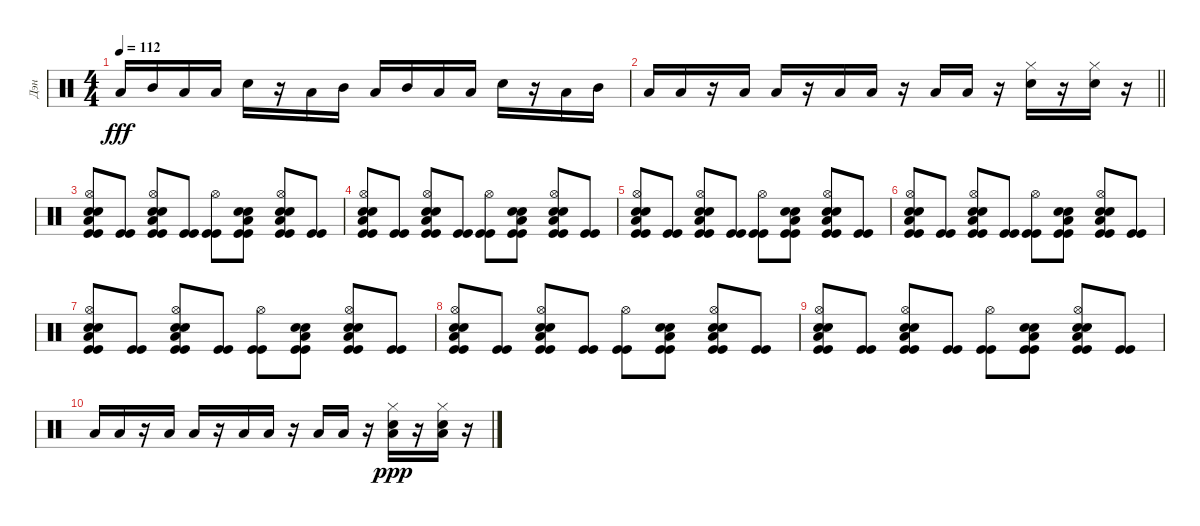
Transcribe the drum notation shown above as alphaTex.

\track ("Дэн" "Дэн") {instrument percussion}
\staff {score}
\articulation defaults
\ts (4 4)
\tempo 112
\clef neutral
\ks c "Low Tom (hit)".16{dy fff} "Mid Tom (hit)".16 "Low Tom (hit)".16 "Low Tom (hit)".16 "Electric Snare (hit)".16
r.16 "Low Tom (hit)".16 "Mid Tom (hit)".16 "Low Tom (hit)".16 "Mid Tom (hit)".16 "Low Tom (hit)".16 "Low Tom (hit)".16 "Electric Snare (hit)".16 r.16 "Low Tom (hit)".16 "Mid Tom (hit)".16 |
\barLineRight lightlight "Low Tom (hit)".16 "Low Tom (hit)".16
r.16 "Low Tom (hit)".16 "Low Tom (hit)".16 r.16 "Low Tom (hit)".16 "Low Tom (hit)".16 r.16 "Low Tom (hit)".16 "Low Tom (hit)".16 r.16 ("Hi-Hat (closed)" "Electric Snare (hit)").16 r.16 ("Hi-Hat (closed)" "Electric Snare (hit)").16 r.16 |
("Hi-Hat (open)" "Kick (hit)" "Kick (hit)" "Electric Snare (hit)" "Electric Snare (hit)" "Low Tom (hit)").8 ("Kick (hit)" "Kick (hit)").8 ("Hi-Hat (open)" "Kick (hit)" "Kick (hit)" "Electric Snare (hit)" "Electric Snare (hit)" "Low Tom (hit)").8 ("Kick (hit)" "Kick (hit)").8 ("Hi-Hat (open)" "Kick (hit)" "Kick (hit)").8 ("Kick (hit)" "Kick (hit)" "Electric Snare (hit)" "Electric Snare (hit)" "Low Tom (hit)").8 ("Hi-Hat (open)" "Kick (hit)" "Kick (hit)" "Electric Snare (hit)" "Electric Snare (hit)" "Low Tom (hit)").8 ("Kick (hit)" "Kick (hit)").8 |
("Hi-Hat (open)" "Kick (hit)" "Kick (hit)" "Electric Snare (hit)" "Electric Snare (hit)" "Low Tom (hit)").8 ("Kick (hit)" "Kick (hit)").8 ("Hi-Hat (open)" "Kick (hit)" "Kick (hit)" "Electric Snare (hit)" "Electric Snare (hit)" "Low Tom (hit)").8 ("Kick (hit)" "Kick (hit)").8 ("Hi-Hat (open)" "Kick (hit)" "Kick (hit)").8 ("Kick (hit)" "Kick (hit)" "Electric Snare (hit)" "Electric Snare (hit)" "Low Tom (hit)").8 ("Hi-Hat (open)" "Kick (hit)" "Kick (hit)" "Electric Snare (hit)" "Electric Snare (hit)" "Low Tom (hit)").8 ("Kick (hit)" "Kick (hit)").8 |
("Hi-Hat (open)" "Kick (hit)" "Kick (hit)" "Electric Snare (hit)" "Electric Snare (hit)" "Low Tom (hit)").8 ("Kick (hit)" "Kick (hit)").8 ("Hi-Hat (open)" "Kick (hit)" "Kick (hit)" "Electric Snare (hit)" "Electric Snare (hit)" "Low Tom (hit)").8 ("Kick (hit)" "Kick (hit)").8 ("Hi-Hat (open)" "Kick (hit)" "Kick (hit)").8 ("Kick (hit)" "Kick (hit)" "Electric Snare (hit)" "Electric Snare (hit)" "Low Tom (hit)").8 ("Hi-Hat (open)" "Kick (hit)" "Kick (hit)" "Electric Snare (hit)" "Electric Snare (hit)" "Low Tom (hit)").8 ("Kick (hit)" "Kick (hit)").8 |
("Hi-Hat (open)" "Kick (hit)" "Kick (hit)" "Electric Snare (hit)" "Electric Snare (hit)" "Low Tom (hit)").8 ("Kick (hit)" "Kick (hit)").8 ("Hi-Hat (open)" "Kick (hit)" "Kick (hit)" "Electric Snare (hit)" "Electric Snare (hit)" "Low Tom (hit)").8 ("Kick (hit)" "Kick (hit)").8 ("Hi-Hat (open)" "Kick (hit)" "Kick (hit)").8 ("Kick (hit)" "Kick (hit)" "Electric Snare (hit)" "Electric Snare (hit)" "Low Tom (hit)").8 ("Hi-Hat (open)" "Kick (hit)" "Kick (hit)" "Electric Snare (hit)" "Electric Snare (hit)" "Low Tom (hit)").8 ("Kick (hit)" "Kick (hit)").8 |
("Hi-Hat (open)" "Kick (hit)" "Kick (hit)" "Electric Snare (hit)" "Electric Snare (hit)" "Low Tom (hit)").8 ("Kick (hit)" "Kick (hit)").8 ("Hi-Hat (open)" "Kick (hit)" "Kick (hit)" "Electric Snare (hit)" "Electric Snare (hit)" "Low Tom (hit)").8 ("Kick (hit)" "Kick (hit)").8 ("Hi-Hat (open)" "Kick (hit)" "Kick (hit)").8 ("Kick (hit)" "Kick (hit)" "Electric Snare (hit)" "Electric Snare (hit)" "Low Tom (hit)").8 ("Hi-Hat (open)" "Kick (hit)" "Kick (hit)" "Electric Snare (hit)" "Electric Snare (hit)" "Low Tom (hit)").8 ("Kick (hit)" "Kick (hit)").8 |
("Hi-Hat (open)" "Kick (hit)" "Kick (hit)" "Electric Snare (hit)" "Electric Snare (hit)" "Low Tom (hit)").8 ("Kick (hit)" "Kick (hit)").8 ("Hi-Hat (open)" "Kick (hit)" "Kick (hit)" "Electric Snare (hit)" "Electric Snare (hit)" "Low Tom (hit)").8 ("Kick (hit)" "Kick (hit)").8 ("Hi-Hat (open)" "Kick (hit)" "Kick (hit)").8 ("Kick (hit)" "Kick (hit)" "Electric Snare (hit)" "Electric Snare (hit)" "Low Tom (hit)").8 ("Hi-Hat (open)" "Kick (hit)" "Kick (hit)" "Electric Snare (hit)" "Electric Snare (hit)" "Low Tom (hit)").8 ("Kick (hit)" "Kick (hit)").8 |
("Hi-Hat (open)" "Kick (hit)" "Kick (hit)" "Electric Snare (hit)" "Electric Snare (hit)" "Low Tom (hit)").8 ("Kick (hit)" "Kick (hit)").8 ("Hi-Hat (open)" "Kick (hit)" "Kick (hit)" "Electric Snare (hit)" "Electric Snare (hit)" "Low Tom (hit)").8 ("Kick (hit)" "Kick (hit)").8 ("Hi-Hat (open)" "Kick (hit)" "Kick (hit)").8 ("Kick (hit)" "Kick (hit)" "Electric Snare (hit)" "Electric Snare (hit)" "Low Tom (hit)").8 ("Hi-Hat (open)" "Kick (hit)" "Kick (hit)" "Electric Snare (hit)" "Electric Snare (hit)" "Low Tom (hit)").8 ("Kick (hit)" "Kick (hit)").8 |
"Low Tom (hit)".16 "Low Tom (hit)".16 r.16 "Low Tom (hit)".16 "Low Tom (hit)".16 r.16 "Low Tom (hit)".16 "Low Tom (hit)".16 r.16 "Low Tom (hit)".16 "Low Tom (hit)".16 r.16 ("Hi-Hat (closed)" "Electric Snare (hit)" "Low Tom (hit)").16{dy ppp} r.16 ("Hi-Hat (closed)" "Electric Snare (hit)" "Low Tom (hit)").16 r.16
